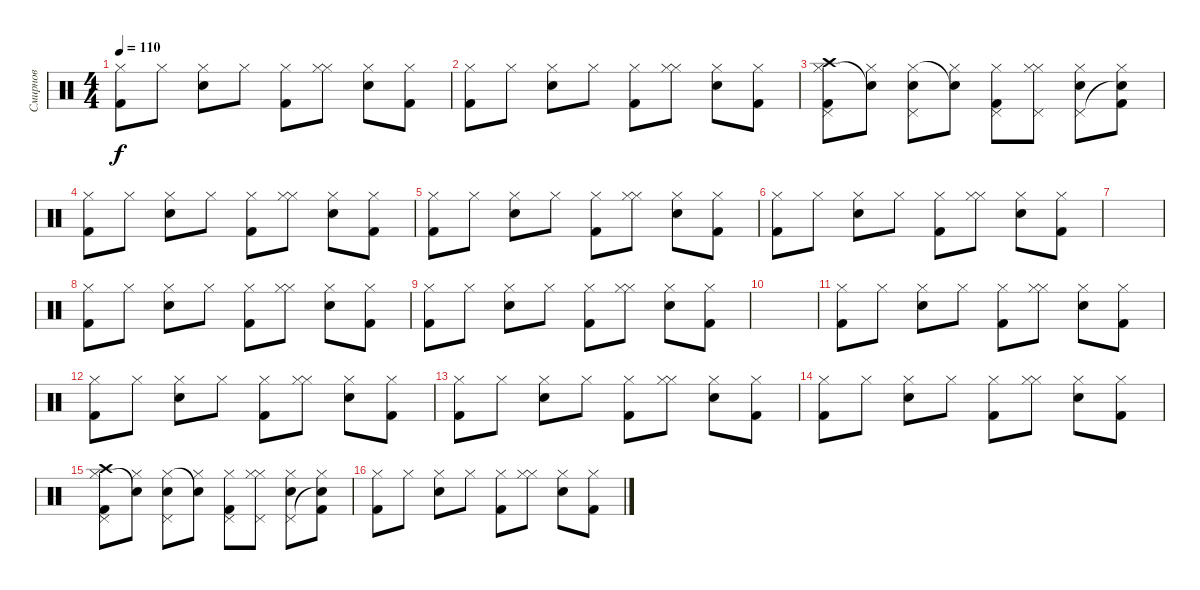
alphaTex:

\track ("Смирнов" "Смирнов") {instrument percussion}
\staff {score}
\articulation defaults
\ts (4 4)
\tempo 110
\clef neutral
\ks c
("Kick (hit) 2" "Hi-Hat (closed)").8{dy f} "Hi-Hat (closed)".8 ("Snare (hit) 2" "Hi-Hat (closed)").8 "Hi-Hat (closed)".8 ("Kick (hit) 2" "Hi-Hat (closed)").8 ("Hi-Hat (closed)" "Hi-Hat (closed)").8 ("Snare (hit) 2" "Hi-Hat (closed)").8 ("Kick (hit) 2" "Hi-Hat (closed)").8 |
("Kick (hit) 2" "Hi-Hat (closed)").8 "Hi-Hat (closed)".8 ("Snare (hit) 2" "Hi-Hat (closed)").8 "Hi-Hat (closed)".8 ("Kick (hit) 2" "Hi-Hat (closed)").8 ("Hi-Hat (closed)" "Hi-Hat (closed)").8 ("Snare (hit) 2" "Hi-Hat (closed)").8 ("Kick (hit) 2" "Hi-Hat (closed)").8 |
("Kick (hit) 2" "Hi-Hat (closed)" "Crash high (hit)" "Pedal Hi-Hat (hit)").8 ("Hi-Hat (closed)" "Snare (hit)"{t}).8 ("Snare (hit) 2" "Hi-Hat (closed)" "Pedal Hi-Hat (hit)").8 ("Hi-Hat (closed)" "Snare (hit)"{t}).8 ("Kick (hit) 2" "Hi-Hat (closed)" "Pedal Hi-Hat (hit)").8 ("Hi-Hat (closed)" "Hi-Hat (closed)" "Pedal Hi-Hat (hit)").8 ("Snare (hit) 2" "Hi-Hat (closed)" "Pedal Hi-Hat (hit)").8 ("Kick (hit) 2" "Hi-Hat (closed)" "Snare (hit)"{t}).8 |
("Kick (hit) 2" "Hi-Hat (closed)").8 "Hi-Hat (closed)".8 ("Snare (hit) 2" "Hi-Hat (closed)").8 "Hi-Hat (closed)".8 ("Kick (hit) 2" "Hi-Hat (closed)").8 ("Hi-Hat (closed)" "Hi-Hat (closed)").8 ("Snare (hit) 2" "Hi-Hat (closed)").8 ("Kick (hit) 2" "Hi-Hat (closed)").8 |
("Kick (hit) 2" "Hi-Hat (closed)").8 "Hi-Hat (closed)".8 ("Snare (hit) 2" "Hi-Hat (closed)").8 "Hi-Hat (closed)".8 ("Kick (hit) 2" "Hi-Hat (closed)").8 ("Hi-Hat (closed)" "Hi-Hat (closed)").8 ("Snare (hit) 2" "Hi-Hat (closed)").8 ("Kick (hit) 2" "Hi-Hat (closed)").8 |
("Kick (hit) 2" "Hi-Hat (closed)").8 "Hi-Hat (closed)".8 ("Snare (hit) 2" "Hi-Hat (closed)").8 "Hi-Hat (closed)".8 ("Kick (hit) 2" "Hi-Hat (closed)").8 ("Hi-Hat (closed)" "Hi-Hat (closed)").8 ("Snare (hit) 2" "Hi-Hat (closed)").8 ("Kick (hit) 2" "Hi-Hat (closed)").8 |
|
("Kick (hit) 2" "Hi-Hat (closed)").8 "Hi-Hat (closed)".8 ("Snare (hit) 2" "Hi-Hat (closed)").8 "Hi-Hat (closed)".8 ("Kick (hit) 2" "Hi-Hat (closed)").8 ("Hi-Hat (closed)" "Hi-Hat (closed)").8 ("Snare (hit) 2" "Hi-Hat (closed)").8 ("Kick (hit) 2" "Hi-Hat (closed)").8 |
("Kick (hit) 2" "Hi-Hat (closed)").8 "Hi-Hat (closed)".8 ("Snare (hit) 2" "Hi-Hat (closed)").8 "Hi-Hat (closed)".8 ("Kick (hit) 2" "Hi-Hat (closed)").8 ("Hi-Hat (closed)" "Hi-Hat (closed)").8 ("Snare (hit) 2" "Hi-Hat (closed)").8 ("Kick (hit) 2" "Hi-Hat (closed)").8 |
|
("Kick (hit) 2" "Hi-Hat (closed)").8 "Hi-Hat (closed)".8 ("Snare (hit) 2" "Hi-Hat (closed)").8 "Hi-Hat (closed)".8 ("Kick (hit) 2" "Hi-Hat (closed)").8 ("Hi-Hat (closed)" "Hi-Hat (closed)").8 ("Snare (hit) 2" "Hi-Hat (closed)").8 ("Kick (hit) 2" "Hi-Hat (closed)").8 |
("Kick (hit) 2" "Hi-Hat (closed)").8 "Hi-Hat (closed)".8 ("Snare (hit) 2" "Hi-Hat (closed)").8 "Hi-Hat (closed)".8 ("Kick (hit) 2" "Hi-Hat (closed)").8 ("Hi-Hat (closed)" "Hi-Hat (closed)").8 ("Snare (hit) 2" "Hi-Hat (closed)").8 ("Kick (hit) 2" "Hi-Hat (closed)").8 |
("Kick (hit) 2" "Hi-Hat (closed)").8 "Hi-Hat (closed)".8 ("Snare (hit) 2" "Hi-Hat (closed)").8 "Hi-Hat (closed)".8 ("Kick (hit) 2" "Hi-Hat (closed)").8 ("Hi-Hat (closed)" "Hi-Hat (closed)").8 ("Snare (hit) 2" "Hi-Hat (closed)").8 ("Kick (hit) 2" "Hi-Hat (closed)").8 |
("Kick (hit) 2" "Hi-Hat (closed)").8 "Hi-Hat (closed)".8 ("Snare (hit) 2" "Hi-Hat (closed)").8 "Hi-Hat (closed)".8 ("Kick (hit) 2" "Hi-Hat (closed)").8 ("Hi-Hat (closed)" "Hi-Hat (closed)").8 ("Snare (hit) 2" "Hi-Hat (closed)").8 ("Kick (hit) 2" "Hi-Hat (closed)").8 |
("Kick (hit) 2" "Hi-Hat (closed)" "Crash high (hit)" "Pedal Hi-Hat (hit)").8 ("Hi-Hat (closed)" "Snare (hit)"{t}).8 ("Snare (hit) 2" "Hi-Hat (closed)" "Pedal Hi-Hat (hit)").8 ("Hi-Hat (closed)" "Snare (hit)"{t}).8 ("Kick (hit) 2" "Hi-Hat (closed)" "Pedal Hi-Hat (hit)").8 ("Hi-Hat (closed)" "Hi-Hat (closed)" "Pedal Hi-Hat (hit)").8 ("Snare (hit) 2" "Hi-Hat (closed)" "Pedal Hi-Hat (hit)").8 ("Kick (hit) 2" "Hi-Hat (closed)" "Snare (hit)"{t}).8 |
("Kick (hit) 2" "Hi-Hat (closed)").8 "Hi-Hat (closed)".8 ("Snare (hit) 2" "Hi-Hat (closed)").8 "Hi-Hat (closed)".8 ("Kick (hit) 2" "Hi-Hat (closed)").8 ("Hi-Hat (closed)" "Hi-Hat (closed)").8 ("Snare (hit) 2" "Hi-Hat (closed)").8 ("Kick (hit) 2" "Hi-Hat (closed)").8
